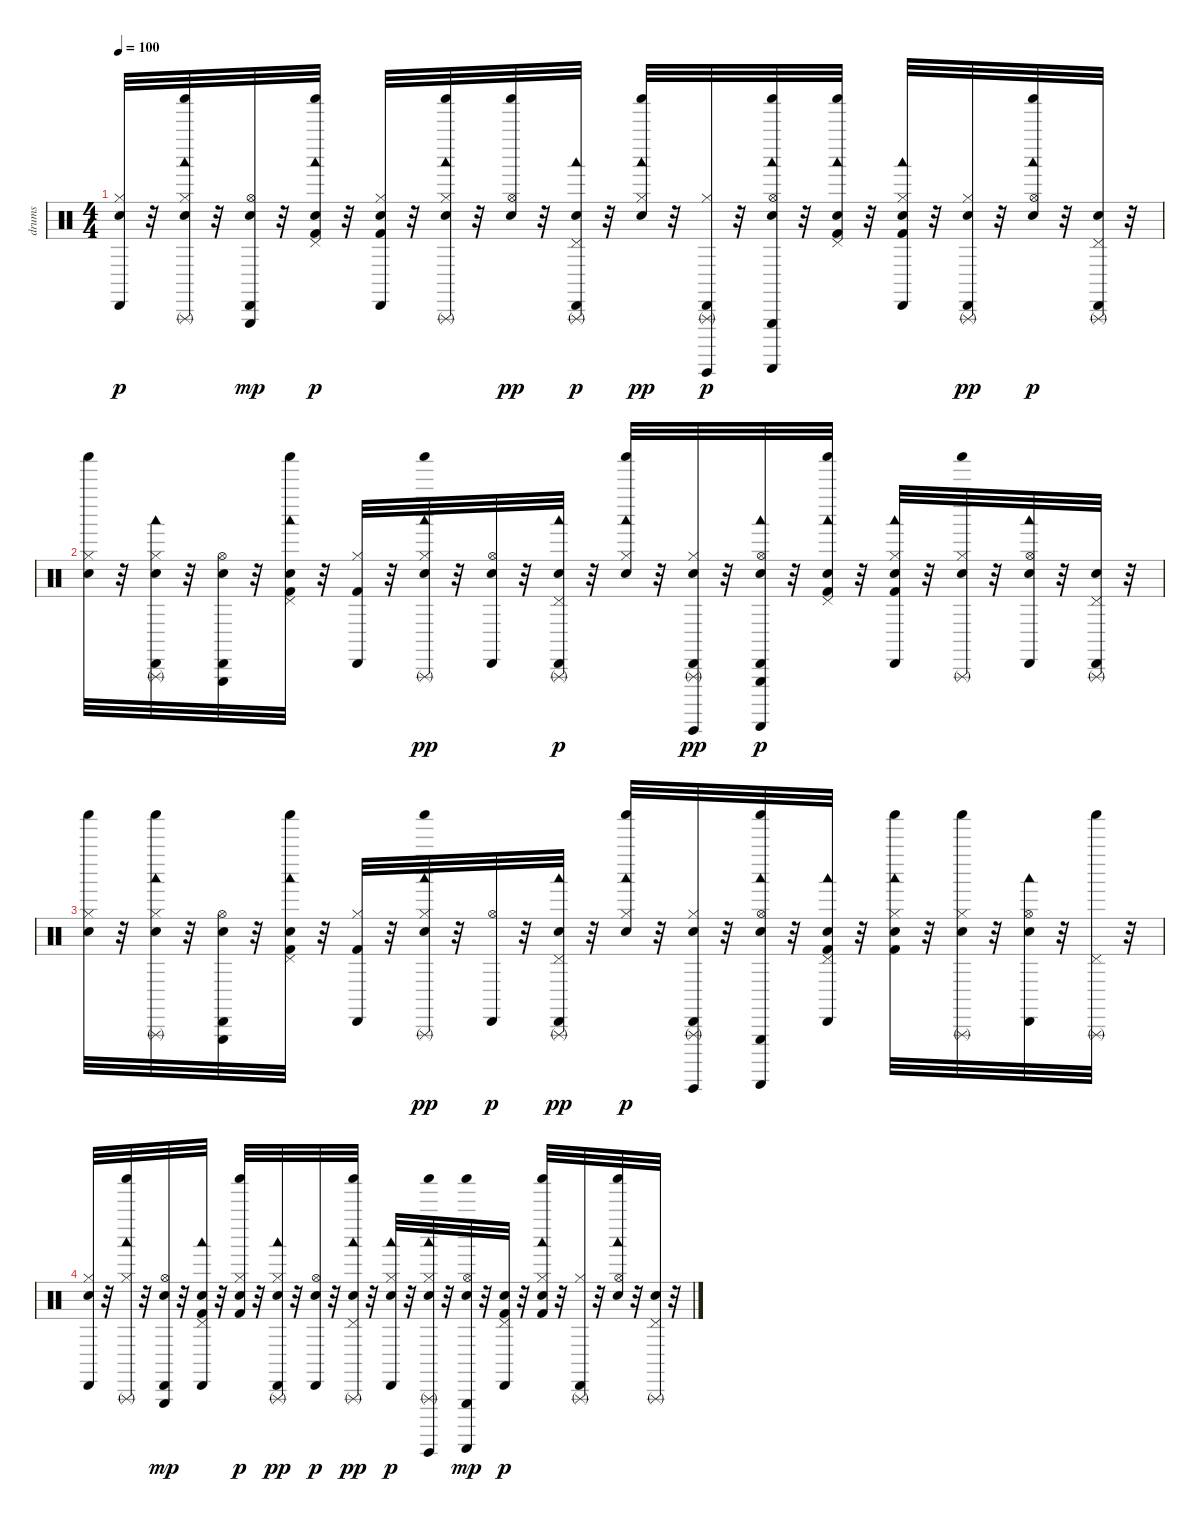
\track ("drums" "drums") {instrument percussion}
\staff {score}
\articulation defaults
\ts (4 4)
\tempo 100
\clef neutral
\ks c
("Snare (hit) 2" "Hi-Hat (closed)" "Cabasa (hit)").32{dy p} r.32 ("Snare (hit) 2" "Hi-Hat (closed)" "Woodblock low (hit)" "Shaker (hit)" "Triangle (rnute)").32 r.32 ("Snare (hit) 2" "Hi-Hat (open)" "Cabasa (hit)" "Triangle (hit)").32{dy mp} r.32 ("Kick (hit) 2" "Snare (hit) 2" "Pedal Hi-Hat (hit)" "Woodblock low (hit)" "Shaker (hit)").32{dy p} r.32 ("Kick (hit) 2" "Snare (hit) 2" "Hi-Hat (closed)" "Cabasa (hit)").32 r.32 ("Snare (hit) 2" "Hi-Hat (closed)" "Woodblock low (hit)" "Shaker (hit)" "Triangle (rnute)").32 r.32 ("Snare (hit) 2" "Hi-Hat (open)" "Shaker (hit)").32{dy pp} r.32 ("Snare (hit) 2" "Pedal Hi-Hat (hit)" "Woodblock low (hit)" "Cabasa (hit)" "Triangle (rnute)").32{dy p} r.32 ("Snare (hit) 2" "Hi-Hat (closed)" "Woodblock low (hit)" "Shaker (hit)").32{dy pp} r.32 ("Hi-Hat (closed)" "Cabasa (hit)" "Triangle (rnute)" "Guiro (hit)").32{dy p} r.32 ("Snare (hit) 2" "Hi-Hat (open)" "Woodblock low (hit)" "Shaker (hit)" "Guiro (scrap-return)" "Triangle (hit)").32 r.32 ("Kick (hit) 2" "Snare (hit) 2" "Pedal Hi-Hat (hit)" "Woodblock low (hit)" "Shaker (hit)").32 r.32 ("Kick (hit) 2" "Snare (hit) 2" "Hi-Hat (closed)" "Woodblock low (hit)" "Cabasa (hit)").32 r.32 ("Snare (hit) 2" "Hi-Hat (closed)" "Cabasa (hit)" "Triangle (rnute)").32{dy pp} r.32 ("Snare (hit) 2" "Hi-Hat (open)" "Woodblock low (hit)" "Shaker (hit)").32{dy p} r.32 ("Snare (hit) 2" "Pedal Hi-Hat (hit)" "Cabasa (hit)" "Triangle (rnute)").32 r.32 |
("Snare (hit) 2" "Hi-Hat (closed)" "Shaker (hit)").32 r.32 ("Snare (hit) 2" "Hi-Hat (closed)" "Woodblock low (hit)" "Cabasa (hit)" "Triangle (rnute)").32 r.32 ("Snare (hit) 2" "Hi-Hat (open)" "Cabasa (hit)" "Triangle (hit)").32 r.32 ("Kick (hit) 2" "Snare (hit) 2" "Pedal Hi-Hat (hit)" "Woodblock low (hit)" "Shaker (hit)").32 r.32 ("Kick (hit) 2" "Hi-Hat (closed)" "Cabasa (hit)").32 r.32 ("Snare (hit) 2" "Hi-Hat (closed)" "Woodblock low (hit)" "Shaker (hit)" "Triangle (rnute)").32{dy pp} r.32 ("Snare (hit) 2" "Hi-Hat (open)" "Cabasa (hit)").32 r.32 ("Snare (hit) 2" "Pedal Hi-Hat (hit)" "Woodblock low (hit)" "Cabasa (hit)" "Triangle (rnute)").32{dy p} r.32 ("Snare (hit) 2" "Hi-Hat (closed)" "Woodblock low (hit)" "Shaker (hit)").32 r.32 ("Snare (hit) 2" "Hi-Hat (closed)" "Cabasa (hit)" "Guiro (hit)" "Triangle (rnute)").32{dy pp} r.32 ("Snare (hit) 2" "Hi-Hat (open)" "Woodblock low (hit)" "Cabasa (hit)" "Guiro (scrap-return)" "Triangle (hit)").32{dy p} r.32 ("Kick (hit) 2" "Snare (hit) 2" "Pedal Hi-Hat (hit)" "Woodblock low (hit)" "Shaker (hit)").32 r.32 ("Kick (hit) 2" "Snare (hit) 2" "Hi-Hat (closed)" "Woodblock low (hit)" "Cabasa (hit)").32 r.32 ("Snare (hit) 2" "Hi-Hat (closed)" "Shaker (hit)" "Triangle (rnute)").32 r.32 ("Snare (hit) 2" "Hi-Hat (open)" "Woodblock low (hit)" "Cabasa (hit)").32 r.32 ("Snare (hit) 2" "Pedal Hi-Hat (hit)" "Cabasa (hit)" "Triangle (rnute)").32 r.32 |
("Snare (hit) 2" "Hi-Hat (closed)" "Shaker (hit)").32 r.32 ("Snare (hit) 2" "Hi-Hat (closed)" "Woodblock low (hit)" "Shaker (hit)" "Triangle (rnute)").32 r.32 ("Snare (hit) 2" "Hi-Hat (open)" "Cabasa (hit)" "Triangle (hit)").32 r.32 ("Kick (hit) 2" "Snare (hit) 2" "Pedal Hi-Hat (hit)" "Woodblock low (hit)" "Shaker (hit)").32 r.32 ("Kick (hit) 2" "Hi-Hat (closed)" "Cabasa (hit)").32 r.32 ("Snare (hit) 2" "Hi-Hat (closed)" "Woodblock low (hit)" "Shaker (hit)" "Triangle (rnute)").32{dy pp} r.32 ("Hi-Hat (open)" "Cabasa (hit)").32{dy p} r.32 ("Snare (hit) 2" "Pedal Hi-Hat (hit)" "Woodblock low (hit)" "Cabasa (hit)" "Triangle (rnute)").32{dy pp} r.32 ("Snare (hit) 2" "Hi-Hat (closed)" "Woodblock low (hit)" "Shaker (hit)").32{dy p} r.32 ("Snare (hit) 2" "Hi-Hat (closed)" "Cabasa (hit)" "Triangle (rnute)" "Guiro (hit)").32 r.32 ("Snare (hit) 2" "Hi-Hat (open)" "Woodblock low (hit)" "Shaker (hit)" "Guiro (scrap-return)" "Triangle (hit)").32 r.32 ("Kick (hit) 2" "Snare (hit) 2" "Pedal Hi-Hat (hit)" "Woodblock low (hit)" "Cabasa (hit)").32 r.32 ("Kick (hit) 2" "Snare (hit) 2" "Hi-Hat (closed)" "Woodblock low (hit)" "Shaker (hit)").32 r.32 ("Snare (hit) 2" "Hi-Hat (closed)" "Shaker (hit)" "Triangle (rnute)").32 r.32 ("Snare (hit) 2" "Hi-Hat (open)" "Woodblock low (hit)" "Cabasa (hit)").32 r.32 ("Pedal Hi-Hat (hit)" "Shaker (hit)" "Triangle (rnute)").32 r.32 |
("Snare (hit) 2" "Hi-Hat (closed)" "Cabasa (hit)").32 r.32 ("Hi-Hat (closed)" "Woodblock low (hit)" "Shaker (hit)" "Triangle (rnute)").32 r.32 ("Snare (hit) 2" "Hi-Hat (open)" "Cabasa (hit)" "Triangle (hit)").32{dy mp} r.32 ("Kick (hit) 2" "Snare (hit) 2" "Pedal Hi-Hat (hit)" "Woodblock low (hit)" "Cabasa (hit)").32 r.32 ("Kick (hit) 2" "Snare (hit) 2" "Hi-Hat (closed)" "Shaker (hit)").32{dy p} r.32 ("Snare (hit) 2" "Hi-Hat (closed)" "Woodblock low (hit)" "Cabasa (hit)" "Triangle (rnute)").32{dy pp} r.32 ("Snare (hit) 2" "Hi-Hat (open)" "Cabasa (hit)").32{dy p} r.32 ("Snare (hit) 2" "Pedal Hi-Hat (hit)" "Woodblock low (hit)" "Shaker (hit)" "Triangle (rnute)").32{dy pp} r.32 ("Snare (hit) 2" "Hi-Hat (closed)" "Woodblock low (hit)" "Cabasa (hit)").32{dy p} r.32 ("Snare (hit) 2" "Hi-Hat (closed)" "Woodblock low (hit)" "Shaker (hit)" "Triangle (rnute)" "Guiro (hit)").32 r.32 ("Snare (hit) 2" "Hi-Hat (open)" "Shaker (hit)" "Triangle (hit)" "Guiro (scrap-return)").32{dy mp} r.32 ("Kick (hit) 2" "Snare (hit) 2" "Pedal Hi-Hat (hit)" "Cabasa (hit)").32{dy p} r.32 ("Kick (hit) 2" "Snare (hit) 2" "Hi-Hat (closed)" "Woodblock low (hit)" "Shaker (hit)").32 r.32 ("Hi-Hat (closed)" "Cabasa (hit)" "Triangle (rnute)").32 r.32 ("Snare (hit) 2" "Hi-Hat (open)" "Woodblock low (hit)" "Shaker (hit)").32 r.32 ("Snare (hit) 2" "Pedal Hi-Hat (hit)" "Triangle (rnute)").32 r.32
